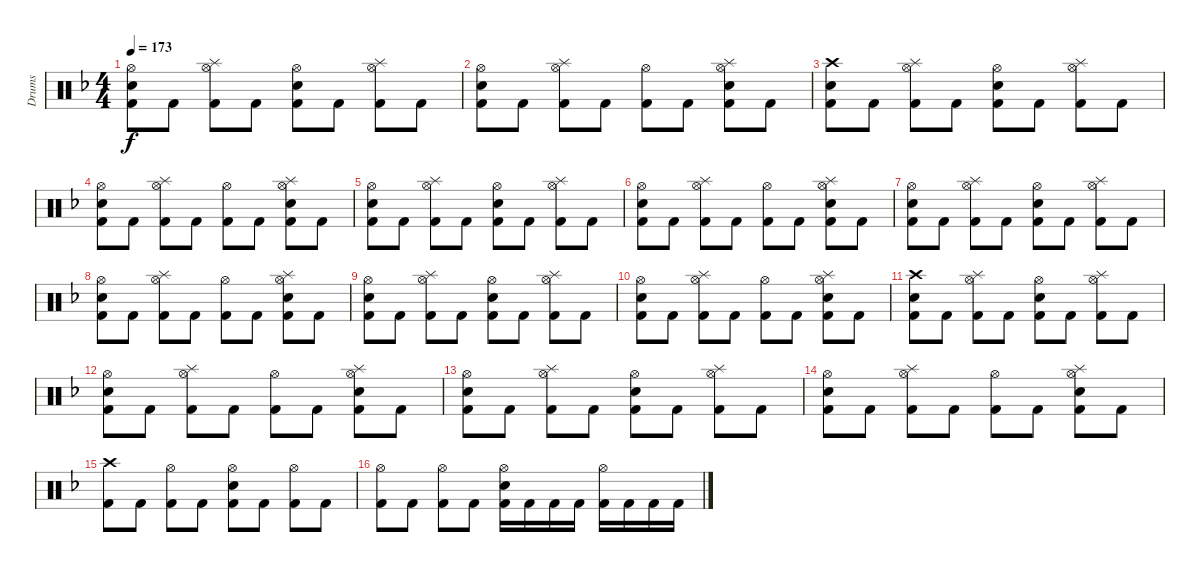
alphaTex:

\track ("Drums" "Drums") {instrument percussion}
\staff {score}
\articulation defaults
\ts (4 4)
\tempo 173
\clef neutral
\ks dminor
("Hi-Hat (open)" "Snare (hit) 2" "Kick (hit) 2").8{dy f} "Kick (hit) 2".8 ("Hi-Hat (open)" "Splash (hit)" "Kick (hit) 2").8 "Kick (hit) 2".8 ("Hi-Hat (open)" "Snare (hit) 2" "Kick (hit) 2").8 "Kick (hit) 2".8 ("Hi-Hat (open)" "Splash (hit)" "Kick (hit) 2").8 "Kick (hit) 2".8 |
("Hi-Hat (open)" "Snare (hit) 2" "Kick (hit) 2").8 "Kick (hit) 2".8 ("Hi-Hat (open)" "Splash (hit)" "Kick (hit) 2").8 "Kick (hit) 2".8 ("Hi-Hat (open)" "Kick (hit) 2").8 "Kick (hit) 2".8 ("Hi-Hat (open)" "Splash (hit)" "Snare (hit) 2" "Kick (hit) 2").8 "Kick (hit) 2".8 |
("Crash high (hit)" "Snare (hit) 2" "Kick (hit) 2").8 "Kick (hit) 2".8 ("Hi-Hat (open)" "Splash (hit)" "Kick (hit) 2").8 "Kick (hit) 2".8 ("Hi-Hat (open)" "Snare (hit) 2" "Kick (hit) 2").8 "Kick (hit) 2".8 ("Hi-Hat (open)" "Splash (hit)" "Kick (hit) 2").8 "Kick (hit) 2".8 |
("Hi-Hat (open)" "Snare (hit) 2" "Kick (hit) 2").8 "Kick (hit) 2".8 ("Hi-Hat (open)" "Splash (hit)" "Kick (hit) 2").8 "Kick (hit) 2".8 ("Hi-Hat (open)" "Kick (hit) 2").8 "Kick (hit) 2".8 ("Hi-Hat (open)" "Splash (hit)" "Snare (hit) 2" "Kick (hit) 2").8 "Kick (hit) 2".8 |
("Hi-Hat (open)" "Snare (hit) 2" "Kick (hit) 2").8 "Kick (hit) 2".8 ("Hi-Hat (open)" "Splash (hit)" "Kick (hit) 2").8 "Kick (hit) 2".8 ("Hi-Hat (open)" "Snare (hit) 2" "Kick (hit) 2").8 "Kick (hit) 2".8 ("Hi-Hat (open)" "Splash (hit)" "Kick (hit) 2").8 "Kick (hit) 2".8 |
("Hi-Hat (open)" "Snare (hit) 2" "Kick (hit) 2").8 "Kick (hit) 2".8 ("Hi-Hat (open)" "Splash (hit)" "Kick (hit) 2").8 "Kick (hit) 2".8 ("Hi-Hat (open)" "Kick (hit) 2").8 "Kick (hit) 2".8 ("Hi-Hat (open)" "Splash (hit)" "Snare (hit) 2" "Kick (hit) 2").8 "Kick (hit) 2".8 |
("Hi-Hat (open)" "Snare (hit) 2" "Kick (hit) 2").8 "Kick (hit) 2".8 ("Hi-Hat (open)" "Splash (hit)" "Kick (hit) 2").8 "Kick (hit) 2".8 ("Hi-Hat (open)" "Snare (hit) 2" "Kick (hit) 2").8 "Kick (hit) 2".8 ("Hi-Hat (open)" "Splash (hit)" "Kick (hit) 2").8 "Kick (hit) 2".8 |
("Hi-Hat (open)" "Snare (hit) 2" "Kick (hit) 2").8 "Kick (hit) 2".8 ("Hi-Hat (open)" "Splash (hit)" "Kick (hit) 2").8 "Kick (hit) 2".8 ("Hi-Hat (open)" "Kick (hit) 2").8 "Kick (hit) 2".8 ("Hi-Hat (open)" "Splash (hit)" "Snare (hit) 2" "Kick (hit) 2").8 "Kick (hit) 2".8 |
("Hi-Hat (open)" "Snare (hit) 2" "Kick (hit) 2").8 "Kick (hit) 2".8 ("Hi-Hat (open)" "Splash (hit)" "Kick (hit) 2").8 "Kick (hit) 2".8 ("Hi-Hat (open)" "Snare (hit) 2" "Kick (hit) 2").8 "Kick (hit) 2".8 ("Hi-Hat (open)" "Splash (hit)" "Kick (hit) 2").8 "Kick (hit) 2".8 |
("Hi-Hat (open)" "Snare (hit) 2" "Kick (hit) 2").8 "Kick (hit) 2".8 ("Hi-Hat (open)" "Splash (hit)" "Kick (hit) 2").8 "Kick (hit) 2".8 ("Hi-Hat (open)" "Kick (hit) 2").8 "Kick (hit) 2".8 ("Hi-Hat (open)" "Splash (hit)" "Snare (hit) 2" "Kick (hit) 2").8 "Kick (hit) 2".8 |
("Crash high (hit)" "Snare (hit) 2" "Kick (hit) 2").8 "Kick (hit) 2".8 ("Hi-Hat (open)" "Splash (hit)" "Kick (hit) 2").8 "Kick (hit) 2".8 ("Hi-Hat (open)" "Snare (hit) 2" "Kick (hit) 2").8 "Kick (hit) 2".8 ("Hi-Hat (open)" "Splash (hit)" "Kick (hit) 2").8 "Kick (hit) 2".8 |
("Hi-Hat (open)" "Snare (hit) 2" "Kick (hit) 2").8 "Kick (hit) 2".8 ("Hi-Hat (open)" "Splash (hit)" "Kick (hit) 2").8 "Kick (hit) 2".8 ("Hi-Hat (open)" "Kick (hit) 2").8 "Kick (hit) 2".8 ("Hi-Hat (open)" "Splash (hit)" "Snare (hit) 2" "Kick (hit) 2").8 "Kick (hit) 2".8 |
("Hi-Hat (open)" "Snare (hit) 2" "Kick (hit) 2").8 "Kick (hit) 2".8 ("Hi-Hat (open)" "Splash (hit)" "Kick (hit) 2").8 "Kick (hit) 2".8 ("Hi-Hat (open)" "Snare (hit) 2" "Kick (hit) 2").8 "Kick (hit) 2".8 ("Hi-Hat (open)" "Splash (hit)" "Kick (hit) 2").8 "Kick (hit) 2".8 |
("Hi-Hat (open)" "Snare (hit) 2" "Kick (hit) 2").8 "Kick (hit) 2".8 ("Hi-Hat (open)" "Splash (hit)" "Kick (hit) 2").8 "Kick (hit) 2".8 ("Hi-Hat (open)" "Kick (hit) 2").8 "Kick (hit) 2".8 ("Hi-Hat (open)" "Splash (hit)" "Snare (hit) 2" "Kick (hit) 2").8 "Kick (hit) 2".8 |
("Crash high (hit)" "Kick (hit) 2").8 "Kick (hit) 2".8 ("Hi-Hat (open)" "Kick (hit) 2").8 "Kick (hit) 2".8 ("Hi-Hat (open)" "Snare (hit) 2" "Kick (hit) 2").8 "Kick (hit) 2".8 ("Hi-Hat (open)" "Kick (hit) 2").8 "Kick (hit) 2".8 |
("Hi-Hat (open)" "Kick (hit) 2").8 "Kick (hit) 2".8 ("Hi-Hat (open)" "Kick (hit) 2").8 "Kick (hit) 2".8 ("Hi-Hat (open)" "Snare (hit) 2" "Kick (hit) 2").16 "Kick (hit) 2".16 "Kick (hit) 2".16 "Kick (hit) 2".16 ("Hi-Hat (open)" "Kick (hit) 2").16 "Kick (hit) 2".16 "Kick (hit) 2".16 "Kick (hit) 2".16
